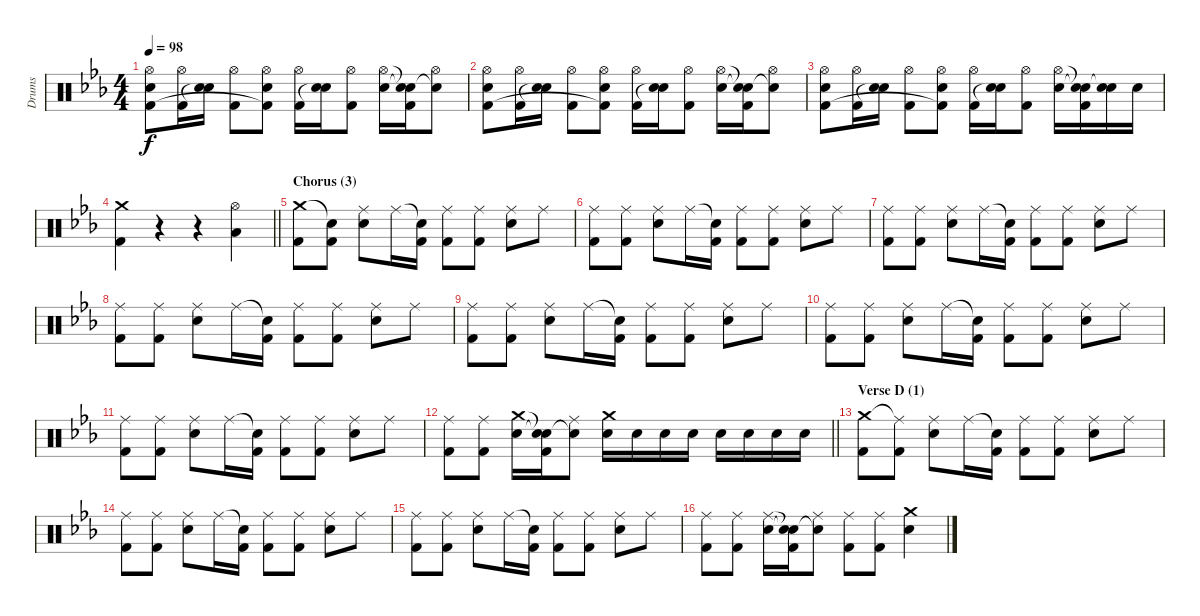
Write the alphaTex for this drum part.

\track ("Drums" "Drums") {instrument percussion}
\staff {score}
\articulation defaults
\ts (4 4)
\tempo 98
\clef neutral
\ks cminor
("Hi-Hat (open)" "Electric Snare (hit)" "Kick (hit) 2").8{dy f} ("Hi-Hat (open)" "Kick (hit) 2").16 ("Electric Snare (hit)" "Snare (hit)"{t}).16 ("Hi-Hat (open)" "Kick (hit) 2").8 ("Hi-Hat (open)" "Electric Snare (hit)" "Kick (hit) 2"{t}).8 ("Hi-Hat (open)" "Kick (hit) 2").16 ("Electric Snare (hit)" "Snare (hit)"{t}).16 ("Hi-Hat (open)" "Kick (hit) 2").8 ("Hi-Hat (open)" "Electric Snare (hit)").16 ("Snare (hit)"{t} "Snare (hit)"{t} "Kick (hit) 2").16 ("Hi-Hat (open)" "Snare (hit)"{t}).8 |
("Hi-Hat (open)" "Electric Snare (hit)" "Kick (hit) 2").8 ("Hi-Hat (open)" "Kick (hit) 2").16 ("Electric Snare (hit)" "Snare (hit)"{t}).16 ("Hi-Hat (open)" "Kick (hit) 2").8 ("Hi-Hat (open)" "Electric Snare (hit)" "Kick (hit) 2"{t}).8 ("Hi-Hat (open)" "Kick (hit) 2").16 ("Electric Snare (hit)" "Snare (hit)"{t}).16 ("Hi-Hat (open)" "Kick (hit) 2").8 ("Hi-Hat (open)" "Electric Snare (hit)").16 ("Snare (hit)"{t} "Snare (hit)"{t} "Kick (hit) 2").16 ("Hi-Hat (open)" "Snare (hit)"{t}).8 |
("Hi-Hat (open)" "Electric Snare (hit)" "Kick (hit) 2").8 ("Hi-Hat (open)" "Kick (hit) 2").16 ("Electric Snare (hit)" "Snare (hit)"{t}).16 ("Hi-Hat (open)" "Kick (hit) 2").8 ("Hi-Hat (open)" "Electric Snare (hit)" "Kick (hit) 2"{t}).8 ("Hi-Hat (open)" "Kick (hit) 2").16 ("Electric Snare (hit)" "Snare (hit)"{t}).16 ("Hi-Hat (open)" "Kick (hit) 2").8 ("Hi-Hat (open)" "Electric Snare (hit)").16 ("Snare (hit)"{t} "Snare (hit)"{t} "Kick (hit) 2").16 ("Electric Snare (hit)" "Snare (hit)"{t}).16 "Electric Snare (hit)".16 |
\barLineRight lightlight
("Crash medium (hit)" "Kick (hit) 2").4 r.4 r.4 ("Hi-Hat (open)" "Low Floor Tom (hit)").4 |
\section ("" "Chorus (3)")
("Crash medium (hit)" "Kick (hit) 2").8 ("Snare (hit)"{t} "Kick (hit) 2").8 ("Ride (middle)" "Electric Snare (hit)").8 "Ride (middle)".16 ("Snare (hit)"{t} "Kick (hit) 2").16 ("Ride (middle)" "Kick (hit) 2").8 ("Ride (middle)" "Kick (hit) 2").8 ("Ride (middle)" "Electric Snare (hit)").8 "Ride (middle)".8 |
("Ride (middle)" "Kick (hit) 2").8 ("Ride (middle)" "Kick (hit) 2").8 ("Ride (middle)" "Electric Snare (hit)").8 "Ride (middle)".16 ("Snare (hit)"{t} "Kick (hit) 2").16 ("Ride (middle)" "Kick (hit) 2").8 ("Ride (middle)" "Kick (hit) 2").8 ("Ride (middle)" "Electric Snare (hit)").8 "Ride (middle)".8 |
("Ride (middle)" "Kick (hit) 2").8 ("Ride (middle)" "Kick (hit) 2").8 ("Ride (middle)" "Electric Snare (hit)").8 "Ride (middle)".16 ("Snare (hit)"{t} "Kick (hit) 2").16 ("Ride (middle)" "Kick (hit) 2").8 ("Ride (middle)" "Kick (hit) 2").8 ("Ride (middle)" "Electric Snare (hit)").8 "Ride (middle)".8 |
("Ride (middle)" "Kick (hit) 2").8 ("Ride (middle)" "Kick (hit) 2").8 ("Ride (middle)" "Electric Snare (hit)").8 "Ride (middle)".16 ("Snare (hit)"{t} "Kick (hit) 2").16 ("Ride (middle)" "Kick (hit) 2").8 ("Ride (middle)" "Kick (hit) 2").8 ("Ride (middle)" "Electric Snare (hit)").8 "Ride (middle)".8 |
("Ride (middle)" "Kick (hit) 2").8 ("Ride (middle)" "Kick (hit) 2").8 ("Ride (middle)" "Electric Snare (hit)").8 "Ride (middle)".16 ("Snare (hit)"{t} "Kick (hit) 2").16 ("Ride (middle)" "Kick (hit) 2").8 ("Ride (middle)" "Kick (hit) 2").8 ("Ride (middle)" "Electric Snare (hit)").8 "Ride (middle)".8 |
("Ride (middle)" "Kick (hit) 2").8 ("Ride (middle)" "Kick (hit) 2").8 ("Ride (middle)" "Electric Snare (hit)").8 "Ride (middle)".16 ("Snare (hit)"{t} "Kick (hit) 2").16 ("Ride (middle)" "Kick (hit) 2").8 ("Ride (middle)" "Kick (hit) 2").8 ("Ride (middle)" "Electric Snare (hit)").8 "Ride (middle)".8 |
("Ride (middle)" "Kick (hit) 2").8 ("Ride (middle)" "Kick (hit) 2").8 ("Ride (middle)" "Electric Snare (hit)").8 "Ride (middle)".16 ("Snare (hit)"{t} "Kick (hit) 2").16 ("Ride (middle)" "Kick (hit) 2").8 ("Ride (middle)" "Kick (hit) 2").8 ("Ride (middle)" "Electric Snare (hit)").8 "Ride (middle)".8 |
\barLineRight lightlight
("Ride (middle)" "Kick (hit) 2").8 ("Ride (middle)" "Kick (hit) 2").8 ("Crash medium (hit)" "Electric Snare (hit)").16 ("Snare (hit)"{t} "Snare (hit)"{t} "Kick (hit) 2").16 ("Ride (middle)" "Snare (hit)"{t}).8 ("Crash medium (hit)" "Electric Snare (hit)").16 "Electric Snare (hit)".16 "Electric Snare (hit)".16 "Electric Snare (hit)".16 "Electric Snare (hit)".16 "Electric Snare (hit)".16 "Electric Snare (hit)".16 "Electric Snare (hit)".16 |
\section ("" "Verse D (1)")
("Crash medium (hit)" "Kick (hit) 2").8 ("Ride (middle)"{t} "Kick (hit) 2").8 ("Ride (middle)" "Electric Snare (hit)").8 "Ride (middle)".16 ("Snare (hit)"{t} "Kick (hit) 2").16 ("Ride (middle)" "Kick (hit) 2").8 ("Ride (middle)" "Kick (hit) 2").8 ("Ride (middle)" "Electric Snare (hit)").8 "Ride (middle)".8 |
("Ride (middle)" "Kick (hit) 2").8 ("Ride (middle)" "Kick (hit) 2").8 ("Ride (middle)" "Electric Snare (hit)").8 "Ride (middle)".16 ("Snare (hit)"{t} "Kick (hit) 2").16 ("Ride (middle)" "Kick (hit) 2").8 ("Ride (middle)" "Kick (hit) 2").8 ("Ride (middle)" "Electric Snare (hit)").8 "Ride (middle)".8 |
("Ride (middle)" "Kick (hit) 2").8 ("Ride (middle)" "Kick (hit) 2").8 ("Ride (middle)" "Electric Snare (hit)").8 "Ride (middle)".16 ("Snare (hit)"{t} "Kick (hit) 2").16 ("Ride (middle)" "Kick (hit) 2").8 ("Ride (middle)" "Kick (hit) 2").8 ("Ride (middle)" "Electric Snare (hit)").8 "Ride (middle)".8 |
("Ride (middle)" "Kick (hit) 2").8 ("Ride (middle)" "Kick (hit) 2").8 ("Ride (middle)" "Electric Snare (hit)").16 ("Snare (hit)"{t} "Snare (hit)"{t} "Kick (hit) 2").16 ("Ride (middle)" "Snare (hit)"{t}).8 ("Ride (middle)" "Kick (hit) 2").8 ("Ride (middle)" "Kick (hit) 2").8 ("Crash medium (hit)" "Electric Snare (hit)").4
